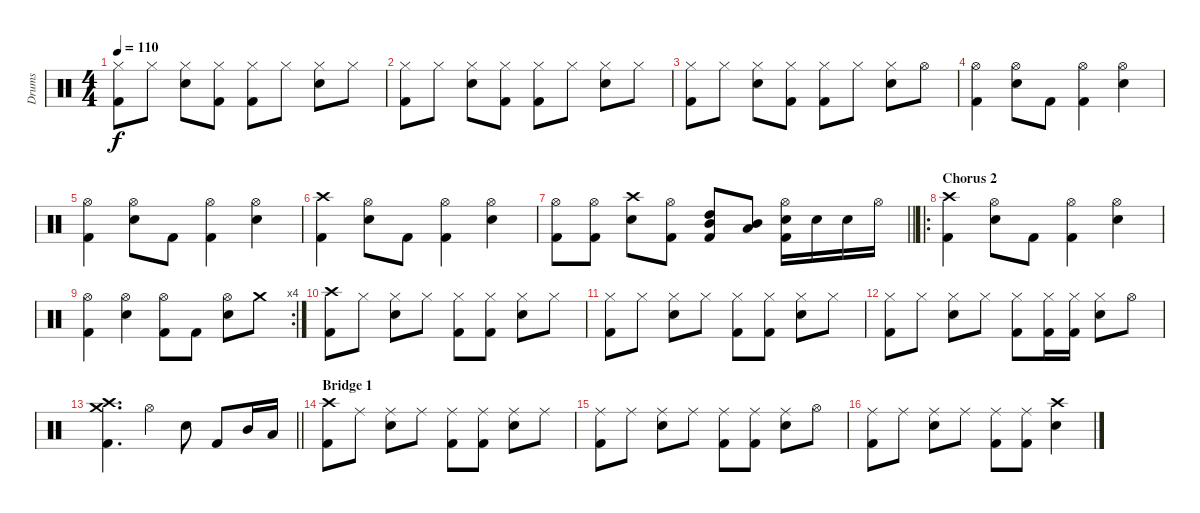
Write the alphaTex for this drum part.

\track ("Drums" "Drums") {instrument percussion bank 10}
\staff {score}
\articulation defaults
\ts (4 4)
\tempo 110
\clef neutral
\ks c
("Kick (hit) 2" "Hi-Hat (closed)").8{dy f} "Hi-Hat (closed)".8 ("Hi-Hat (closed)" "Snare (hit) 2").8 ("Hi-Hat (closed)" "Kick (hit) 2").8 ("Hi-Hat (closed)" "Kick (hit) 2").8 "Hi-Hat (closed)".8 ("Hi-Hat (closed)" "Snare (hit) 2").8 "Hi-Hat (closed)".8 |
("Kick (hit) 2" "Hi-Hat (closed)").8 "Hi-Hat (closed)".8 ("Hi-Hat (closed)" "Snare (hit) 2").8 ("Hi-Hat (closed)" "Kick (hit) 2").8 ("Hi-Hat (closed)" "Kick (hit) 2").8 "Hi-Hat (closed)".8 ("Hi-Hat (closed)" "Snare (hit) 2").8 "Hi-Hat (closed)".8 |
("Kick (hit) 2" "Hi-Hat (closed)").8 "Hi-Hat (closed)".8 ("Hi-Hat (closed)" "Snare (hit) 2").8 ("Hi-Hat (closed)" "Kick (hit) 2").8 ("Hi-Hat (closed)" "Kick (hit) 2").8 "Hi-Hat (closed)".8 ("Hi-Hat (closed)" "Snare (hit) 2").8 "Hi-Hat (open)".8 |
("Hi-Hat (open)" "Kick (hit) 2").4 ("Hi-Hat (open)" "Snare (hit) 2").8 "Kick (hit) 2".8 ("Hi-Hat (open)" "Kick (hit) 2").4 ("Hi-Hat (open)" "Snare (hit) 2").4 |
("Hi-Hat (open)" "Kick (hit) 2").4 ("Hi-Hat (open)" "Snare (hit) 2").8 "Kick (hit) 2".8 ("Hi-Hat (open)" "Kick (hit) 2").4 ("Hi-Hat (open)" "Snare (hit) 2").4 |
("Crash high (hit)" "Kick (hit) 2").4 ("Hi-Hat (open)" "Snare (hit) 2").8 "Kick (hit) 2".8 ("Hi-Hat (open)" "Kick (hit) 2").4 ("Hi-Hat (open)" "Snare (hit) 2").4 |
\barLineRight lightlight
("Kick (hit) 2" "Hi-Hat (open)").8 ("Kick (hit) 2" "Hi-Hat (open)").8 ("Crash high (hit)" "Snare (hit) 2").8 ("Hi-Hat (open)" "Kick (hit) 2").8 ("High Tom (hit)" "Mid Tom (hit)" "Kick (hit) 2").8 ("Mid Tom (hit)" "Low Tom (hit)").8 ("Kick (hit) 2" "Snare (hit) 2" "Hi-Hat (open)").16 "Snare (hit) 2".16 "Snare (hit) 2".16 "Hi-Hat (open)".16 |
\ro
\section ("" "Chorus 2")
("Crash high (hit)" "Kick (hit) 2").4 ("Hi-Hat (open)" "Snare (hit) 2").8 "Kick (hit) 2".8 ("Hi-Hat (open)" "Kick (hit) 2").4 ("Hi-Hat (open)" "Snare (hit) 2").4 |
\rc 4
("Hi-Hat (open)" "Kick (hit) 2").4 ("Hi-Hat (open)" "Snare (hit) 2").4 ("Hi-Hat (open)" "Kick (hit) 2").8 "Kick (hit) 2".8 ("Hi-Hat (open)" "Snare (hit) 2").8 "Crash medium (hit)".8 |
("Kick (hit) 2" "Crash high (hit)").8 "Hi-Hat (closed)".8 ("Hi-Hat (closed)" "Snare (hit) 2").8 "Hi-Hat (closed)".8 ("Hi-Hat (closed)" "Kick (hit) 2").8 ("Hi-Hat (closed)" "Kick (hit) 2").8 ("Hi-Hat (closed)" "Snare (hit) 2").8 "Hi-Hat (closed)".8 |
("Kick (hit) 2" "Hi-Hat (closed)").8 "Hi-Hat (closed)".8 ("Hi-Hat (closed)" "Snare (hit) 2").8 "Hi-Hat (closed)".8 ("Hi-Hat (closed)" "Kick (hit) 2").8 ("Hi-Hat (closed)" "Kick (hit) 2").8 ("Hi-Hat (closed)" "Snare (hit) 2").8 "Hi-Hat (closed)".8 |
("Kick (hit) 2" "Hi-Hat (closed)").8 "Hi-Hat (closed)".8 ("Hi-Hat (closed)" "Snare (hit) 2").8 "Hi-Hat (closed)".8 ("Hi-Hat (closed)" "Kick (hit) 2").8 ("Hi-Hat (closed)" "Kick (hit) 2").16 ("Hi-Hat (closed)" "Kick (hit) 2").16 ("Hi-Hat (closed)" "Snare (hit) 2").8 "Hi-Hat (open)".8 |
\barLineRight lightlight
("Kick (hit) 2" "Crash high (hit)" "Crash medium (hit)").4{d} "Hi-Hat (open)".4 "Snare (hit) 2".8 "Kick (hit) 2".8 "Mid Tom (hit)".16 "Low Tom (hit)".16 |
\section ("" "Bridge 1")
("Kick (hit) 2" "Crash high (hit)").8 "Ride (middle)".8 ("Ride (middle)" "Snare (hit) 2").8 "Ride (middle)".8 ("Ride (middle)" "Kick (hit) 2").8 ("Ride (middle)" "Kick (hit) 2").8 ("Ride (middle)" "Snare (hit) 2").8 "Ride (middle)".8 |
("Kick (hit) 2" "Ride (middle)").8 "Ride (middle)".8 ("Ride (middle)" "Snare (hit) 2").8 "Ride (middle)".8 ("Ride (middle)" "Kick (hit) 2").8 ("Ride (middle)" "Kick (hit) 2").8 ("Ride (middle)" "Snare (hit) 2").8 "Hi-Hat (open)".8 |
("Kick (hit) 2" "Ride (middle)").8 "Ride (middle)".8 ("Ride (middle)" "Snare (hit) 2").8 "Ride (middle)".8 ("Ride (middle)" "Kick (hit) 2").8 ("Ride (middle)" "Kick (hit) 2").8 ("Crash high (hit)" "Snare (hit) 2").4
